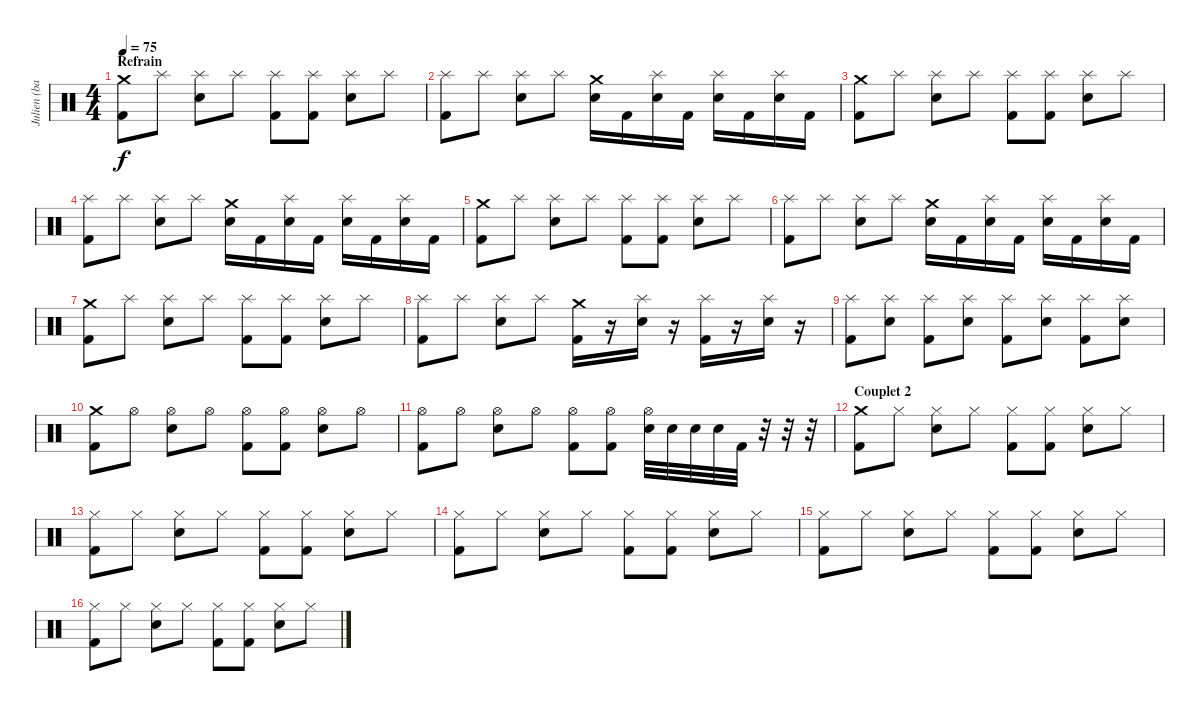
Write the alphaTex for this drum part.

\track ("Julien (batterie)" "Julien (ba") {instrument percussion}
\staff {score}
\articulation defaults
\ts (4 4)
\section ("" "Refrain")
\tempo 75
\clef neutral
\ks c
("Crash medium (hit)" "Kick (hit) 2").8{dy f} "Splash (hit)".8 ("Splash (hit)" "Electric Snare (hit)").8 "Splash (hit)".8 ("Splash (hit)" "Kick (hit) 2").8 ("Splash (hit)" "Kick (hit) 2").8 ("Splash (hit)" "Electric Snare (hit)").8 "Splash (hit)".8 |
("Splash (hit)" "Kick (hit) 2").8 "Splash (hit)".8 ("Splash (hit)" "Electric Snare (hit)").8 "Splash (hit)".8 ("Crash medium (hit)" "Electric Snare (hit)").16 "Kick (hit) 2".16 ("Splash (hit)" "Electric Snare (hit)").16 "Kick (hit) 2".16 ("Splash (hit)" "Electric Snare (hit)").16 "Kick (hit) 2".16 ("Splash (hit)" "Electric Snare (hit)").16 "Kick (hit) 2".16 |
("Crash medium (hit)" "Kick (hit) 2").8 "Splash (hit)".8 ("Splash (hit)" "Electric Snare (hit)").8 "Splash (hit)".8 ("Splash (hit)" "Kick (hit) 2").8 ("Splash (hit)" "Kick (hit) 2").8 ("Splash (hit)" "Electric Snare (hit)").8 "Splash (hit)".8 |
("Splash (hit)" "Kick (hit) 2").8 "Splash (hit)".8 ("Splash (hit)" "Electric Snare (hit)").8 "Splash (hit)".8 ("Crash medium (hit)" "Electric Snare (hit)").16 "Kick (hit) 2".16 ("Splash (hit)" "Electric Snare (hit)").16 "Kick (hit) 2".16 ("Splash (hit)" "Electric Snare (hit)").16 "Kick (hit) 2".16 ("Splash (hit)" "Electric Snare (hit)").16 "Kick (hit) 2".16 |
("Crash medium (hit)" "Kick (hit) 2").8 "Splash (hit)".8 ("Splash (hit)" "Electric Snare (hit)").8 "Splash (hit)".8 ("Splash (hit)" "Kick (hit) 2").8 ("Splash (hit)" "Kick (hit) 2").8 ("Splash (hit)" "Electric Snare (hit)").8 "Splash (hit)".8 |
("Splash (hit)" "Kick (hit) 2").8 "Splash (hit)".8 ("Splash (hit)" "Electric Snare (hit)").8 "Splash (hit)".8 ("Crash medium (hit)" "Electric Snare (hit)").16 "Kick (hit) 2".16 ("Splash (hit)" "Electric Snare (hit)").16 "Kick (hit) 2".16 ("Splash (hit)" "Electric Snare (hit)").16 "Kick (hit) 2".16 ("Splash (hit)" "Electric Snare (hit)").16 "Kick (hit) 2".16 |
("Crash medium (hit)" "Kick (hit) 2").8 "Splash (hit)".8 ("Splash (hit)" "Electric Snare (hit)").8 "Splash (hit)".8 ("Splash (hit)" "Kick (hit) 2").8 ("Splash (hit)" "Kick (hit) 2").8 ("Splash (hit)" "Electric Snare (hit)").8 "Splash (hit)".8 |
("Splash (hit)" "Kick (hit) 2").8 "Splash (hit)".8 ("Splash (hit)" "Electric Snare (hit)").8 "Splash (hit)".8 ("Crash medium (hit)" "Kick (hit) 2").16 r.16 ("Splash (hit)" "Electric Snare (hit)").16 r.16 ("Splash (hit)" "Kick (hit) 2").16 r.16 ("Splash (hit)" "Electric Snare (hit)").16 r.16 |
("Splash (hit)" "Kick (hit) 2").8 ("Splash (hit)" "Electric Snare (hit)").8 ("Splash (hit)" "Kick (hit) 2").8 ("Splash (hit)" "Electric Snare (hit)").8 ("Splash (hit)" "Kick (hit) 2").8 ("Splash (hit)" "Electric Snare (hit)").8 ("Splash (hit)" "Kick (hit) 2").8 ("Splash (hit)" "Electric Snare (hit)").8 |
("Crash medium (hit)" "Kick (hit) 2").8 "Hi-Hat (open)".8 ("Hi-Hat (open)" "Electric Snare (hit)").8 "Hi-Hat (open)".8 ("Hi-Hat (open)" "Kick (hit) 2").8 ("Hi-Hat (open)" "Kick (hit) 2").8 ("Hi-Hat (open)" "Electric Snare (hit)").8 "Hi-Hat (open)".8 |
("Hi-Hat (open)" "Kick (hit) 2").8 "Hi-Hat (open)".8 ("Hi-Hat (open)" "Electric Snare (hit)").8 "Hi-Hat (open)".8 ("Hi-Hat (open)" "Kick (hit) 2").8 ("Hi-Hat (open)" "Kick (hit) 2").8 ("Hi-Hat (open)" "Electric Snare (hit)").32 "Electric Snare (hit)".32 "Electric Snare (hit)".32 "Electric Snare (hit)".32 "Kick (hit) 2".32 r.32 r.32 r.32 |
\section ("" "Couplet 2")
("Crash medium (hit)" "Kick (hit) 2").8 "Hi-Hat (closed)".8 ("Hi-Hat (closed)" "Electric Snare (hit)").8 "Hi-Hat (closed)".8 ("Hi-Hat (closed)" "Kick (hit) 2").8 ("Hi-Hat (closed)" "Kick (hit) 2").8 ("Hi-Hat (closed)" "Electric Snare (hit)").8 "Hi-Hat (closed)".8 |
("Hi-Hat (closed)" "Kick (hit) 2").8 "Hi-Hat (closed)".8 ("Hi-Hat (closed)" "Electric Snare (hit)").8 "Hi-Hat (closed)".8 ("Hi-Hat (closed)" "Kick (hit) 2").8 ("Hi-Hat (closed)" "Kick (hit) 2").8 ("Hi-Hat (closed)" "Electric Snare (hit)").8 "Hi-Hat (closed)".8 |
("Hi-Hat (closed)" "Kick (hit) 2").8 "Hi-Hat (closed)".8 ("Hi-Hat (closed)" "Electric Snare (hit)").8 "Hi-Hat (closed)".8 ("Hi-Hat (closed)" "Kick (hit) 2").8 ("Hi-Hat (closed)" "Kick (hit) 2").8 ("Hi-Hat (closed)" "Electric Snare (hit)").8 "Hi-Hat (closed)".8 |
("Hi-Hat (closed)" "Kick (hit) 2").8 "Hi-Hat (closed)".8 ("Hi-Hat (closed)" "Electric Snare (hit)").8 "Hi-Hat (closed)".8 ("Hi-Hat (closed)" "Kick (hit) 2").8 ("Hi-Hat (closed)" "Kick (hit) 2").8 ("Hi-Hat (closed)" "Electric Snare (hit)").8 "Hi-Hat (closed)".8 |
("Hi-Hat (closed)" "Kick (hit) 2").8 "Hi-Hat (closed)".8 ("Hi-Hat (closed)" "Electric Snare (hit)").8 "Hi-Hat (closed)".8 ("Hi-Hat (closed)" "Kick (hit) 2").8 ("Hi-Hat (closed)" "Kick (hit) 2").8 ("Hi-Hat (closed)" "Electric Snare (hit)").8 "Hi-Hat (closed)".8
